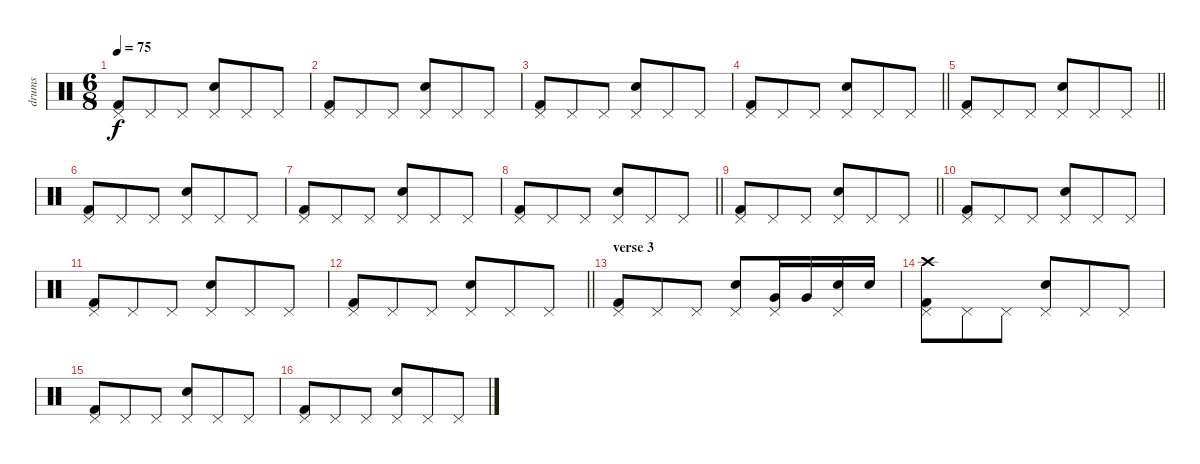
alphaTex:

\track ("drums" "drums") {instrument percussion}
\staff {score}
\articulation defaults
\ts (6 8)
\tempo 75
\clef neutral
\ks c
("Kick (hit) 2" "Pedal Hi-Hat (hit)").8{dy f} "Pedal Hi-Hat (hit)".8 "Pedal Hi-Hat (hit)".8 ("Electric Snare (hit)" "Pedal Hi-Hat (hit)").8 "Pedal Hi-Hat (hit)".8 "Pedal Hi-Hat (hit)".8 |
("Kick (hit) 2" "Pedal Hi-Hat (hit)").8 "Pedal Hi-Hat (hit)".8 "Pedal Hi-Hat (hit)".8 ("Electric Snare (hit)" "Pedal Hi-Hat (hit)").8 "Pedal Hi-Hat (hit)".8 "Pedal Hi-Hat (hit)".8 |
("Kick (hit) 2" "Pedal Hi-Hat (hit)").8 "Pedal Hi-Hat (hit)".8 "Pedal Hi-Hat (hit)".8 ("Electric Snare (hit)" "Pedal Hi-Hat (hit)").8 "Pedal Hi-Hat (hit)".8 "Pedal Hi-Hat (hit)".8 |
\barLineRight lightlight
("Kick (hit) 2" "Pedal Hi-Hat (hit)").8 "Pedal Hi-Hat (hit)".8 "Pedal Hi-Hat (hit)".8 ("Electric Snare (hit)" "Pedal Hi-Hat (hit)").8 "Pedal Hi-Hat (hit)".8 "Pedal Hi-Hat (hit)".8 |
\barLineRight lightlight
("Kick (hit) 2" "Pedal Hi-Hat (hit)").8 "Pedal Hi-Hat (hit)".8 "Pedal Hi-Hat (hit)".8 ("Electric Snare (hit)" "Pedal Hi-Hat (hit)").8 "Pedal Hi-Hat (hit)".8 "Pedal Hi-Hat (hit)".8 |
("Kick (hit) 2" "Pedal Hi-Hat (hit)").8 "Pedal Hi-Hat (hit)".8 "Pedal Hi-Hat (hit)".8 ("Electric Snare (hit)" "Pedal Hi-Hat (hit)").8 "Pedal Hi-Hat (hit)".8 "Pedal Hi-Hat (hit)".8 |
("Kick (hit) 2" "Pedal Hi-Hat (hit)").8 "Pedal Hi-Hat (hit)".8 "Pedal Hi-Hat (hit)".8 ("Electric Snare (hit)" "Pedal Hi-Hat (hit)").8 "Pedal Hi-Hat (hit)".8 "Pedal Hi-Hat (hit)".8 |
\barLineRight lightlight
("Kick (hit) 2" "Pedal Hi-Hat (hit)").8 "Pedal Hi-Hat (hit)".8 "Pedal Hi-Hat (hit)".8 ("Electric Snare (hit)" "Pedal Hi-Hat (hit)").8 "Pedal Hi-Hat (hit)".8 "Pedal Hi-Hat (hit)".8 |
\barLineRight lightlight
("Kick (hit) 2" "Pedal Hi-Hat (hit)").8 "Pedal Hi-Hat (hit)".8 "Pedal Hi-Hat (hit)".8 ("Electric Snare (hit)" "Pedal Hi-Hat (hit)").8 "Pedal Hi-Hat (hit)".8 "Pedal Hi-Hat (hit)".8 |
("Kick (hit) 2" "Pedal Hi-Hat (hit)").8 "Pedal Hi-Hat (hit)".8 "Pedal Hi-Hat (hit)".8 ("Electric Snare (hit)" "Pedal Hi-Hat (hit)").8 "Pedal Hi-Hat (hit)".8 "Pedal Hi-Hat (hit)".8 |
("Kick (hit) 2" "Pedal Hi-Hat (hit)").8 "Pedal Hi-Hat (hit)".8 "Pedal Hi-Hat (hit)".8 ("Electric Snare (hit)" "Pedal Hi-Hat (hit)").8 "Pedal Hi-Hat (hit)".8 "Pedal Hi-Hat (hit)".8 |
\barLineRight lightlight
("Kick (hit) 2" "Pedal Hi-Hat (hit)").8 "Pedal Hi-Hat (hit)".8 "Pedal Hi-Hat (hit)".8 ("Electric Snare (hit)" "Pedal Hi-Hat (hit)").8 "Pedal Hi-Hat (hit)".8 "Pedal Hi-Hat (hit)".8 |
\section ("" "verse 3")
("Kick (hit) 2" "Pedal Hi-Hat (hit)").8 "Pedal Hi-Hat (hit)".8 "Pedal Hi-Hat (hit)".8 ("Electric Snare (hit)" "Pedal Hi-Hat (hit)").8 ("Very Low Tom (hit)" "Pedal Hi-Hat (hit)").16 "Very Low Tom (hit)".16 ("Electric Snare (hit)" "Pedal Hi-Hat (hit)").16 "Electric Snare (hit)".16 |
("Kick (hit) 2" "Pedal Hi-Hat (hit)" "Crash high (hit)").8 "Pedal Hi-Hat (hit)".8 "Pedal Hi-Hat (hit)".8 ("Electric Snare (hit)" "Pedal Hi-Hat (hit)").8 "Pedal Hi-Hat (hit)".8 "Pedal Hi-Hat (hit)".8 |
("Kick (hit) 2" "Pedal Hi-Hat (hit)").8 "Pedal Hi-Hat (hit)".8 "Pedal Hi-Hat (hit)".8 ("Electric Snare (hit)" "Pedal Hi-Hat (hit)").8 "Pedal Hi-Hat (hit)".8 "Pedal Hi-Hat (hit)".8 |
("Kick (hit) 2" "Pedal Hi-Hat (hit)").8 "Pedal Hi-Hat (hit)".8 "Pedal Hi-Hat (hit)".8 ("Electric Snare (hit)" "Pedal Hi-Hat (hit)").8 "Pedal Hi-Hat (hit)".8 "Pedal Hi-Hat (hit)".8
